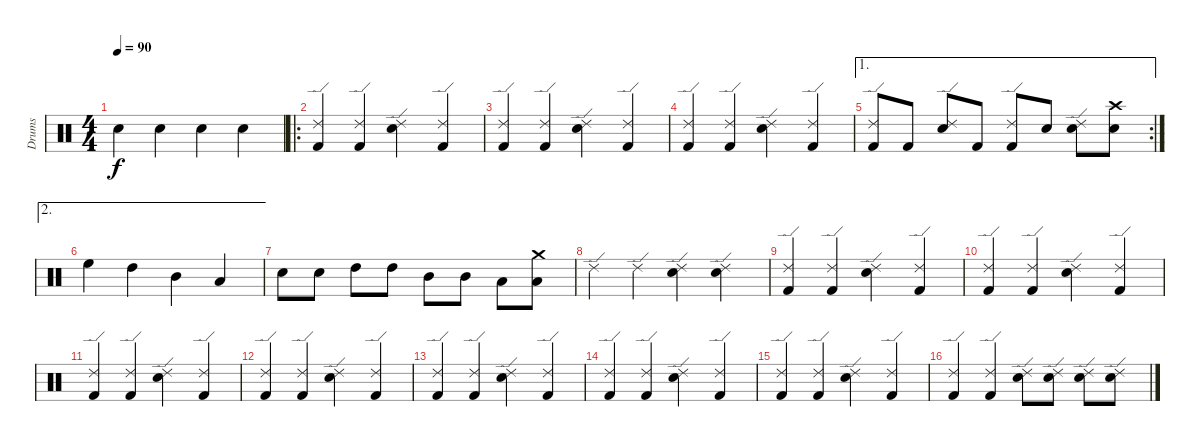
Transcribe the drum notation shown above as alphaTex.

\track ("Drums" "Drums") {instrument percussion}
\staff {score}
\articulation defaults
\ts (4 4)
\tempo 90
\clef neutral
\ks c "Hand Clap (hit)".4{dy f} "Hand Clap (hit)".4 "Hand Clap (hit)".4 "Hand Clap (hit)".4
|
\ro
("Ride (edge) 2" "Kick (hit) 2").4 ("Ride (edge) 2" "Kick (hit) 2").4 ("Ride (edge) 2" "Snare (hit) 2").4 ("Ride (edge) 2" "Kick (hit) 2").4 |
("Ride (edge) 2" "Kick (hit) 2").4 ("Ride (edge) 2" "Kick (hit) 2").4 ("Ride (edge) 2" "Snare (hit) 2").4 ("Ride (edge) 2" "Kick (hit) 2").4 |
("Ride (edge) 2" "Kick (hit) 2").4 ("Ride (edge) 2" "Kick (hit) 2").4 ("Ride (edge) 2" "Snare (hit) 2").4 ("Ride (edge) 2" "Kick (hit) 2").4 |
\ae 1
\rc 2
("Ride (edge) 2" "Kick (hit) 2").8 "Kick (hit) 2".8 ("Ride (edge) 2" "Snare (hit) 2").8 "Kick (hit) 2".8 ("Ride (edge) 2" "Kick (hit) 2").8 "Snare (hit) 2".8 ("Ride (edge) 2" "Snare (hit) 2").8 ("Crash high (hit)" "Snare (hit) 2").8 |
\ae 2 "High Floor Tom (hit)".4 "High Tom (hit)".4 "Mid Tom (hit)".4 "Low Tom (hit)".4
|
"Snare (hit) 2".8 "Snare (hit) 2".8 "High Tom (hit)".8 "High Tom (hit)".8 "Mid Tom (hit)".8 "Mid Tom (hit)".8 "Low Tom (hit)".8 ("Low Tom (hit)" "Crash medium (hit)").8 |
"Ride (edge) 2".4 "Ride (edge) 2".4 ("Ride (edge) 2" "Hand Clap (hit)").4 ("Ride (edge) 2" "Hand Clap (hit)").4 |
("Ride (edge) 2" "Kick (hit) 2").4 ("Ride (edge) 2" "Kick (hit) 2").4 ("Ride (edge) 2" "Snare (hit) 2").4 ("Ride (edge) 2" "Kick (hit) 2").4 |
("Ride (edge) 2" "Kick (hit) 2").4 ("Ride (edge) 2" "Kick (hit) 2").4 ("Ride (edge) 2" "Snare (hit) 2").4 ("Ride (edge) 2" "Kick (hit) 2").4 |
("Ride (edge) 2" "Kick (hit) 2").4 ("Ride (edge) 2" "Kick (hit) 2").4 ("Ride (edge) 2" "Snare (hit) 2").4 ("Ride (edge) 2" "Kick (hit) 2").4 |
("Ride (edge) 2" "Kick (hit) 2").4 ("Ride (edge) 2" "Kick (hit) 2").4 ("Ride (edge) 2" "Snare (hit) 2").4 ("Ride (edge) 2" "Kick (hit) 2").4 |
("Ride (edge) 2" "Kick (hit) 2").4 ("Ride (edge) 2" "Kick (hit) 2").4 ("Ride (edge) 2" "Snare (hit) 2").4 ("Ride (edge) 2" "Kick (hit) 2").4 |
("Ride (edge) 2" "Kick (hit) 2").4 ("Ride (edge) 2" "Kick (hit) 2").4 ("Ride (edge) 2" "Snare (hit) 2").4 ("Ride (edge) 2" "Kick (hit) 2").4 |
("Ride (edge) 2" "Kick (hit) 2").4 ("Ride (edge) 2" "Kick (hit) 2").4 ("Ride (edge) 2" "Snare (hit) 2").4 ("Ride (edge) 2" "Kick (hit) 2").4 |
("Ride (edge) 2" "Kick (hit) 2").4 ("Ride (edge) 2" "Kick (hit) 2").4 ("Ride (edge) 2" "Snare (hit) 2").8 ("Ride (edge) 2" "Snare (hit) 2").8 ("Ride (edge) 2" "Snare (hit) 2").8 ("Ride (edge) 2" "Snare (hit) 2").8
